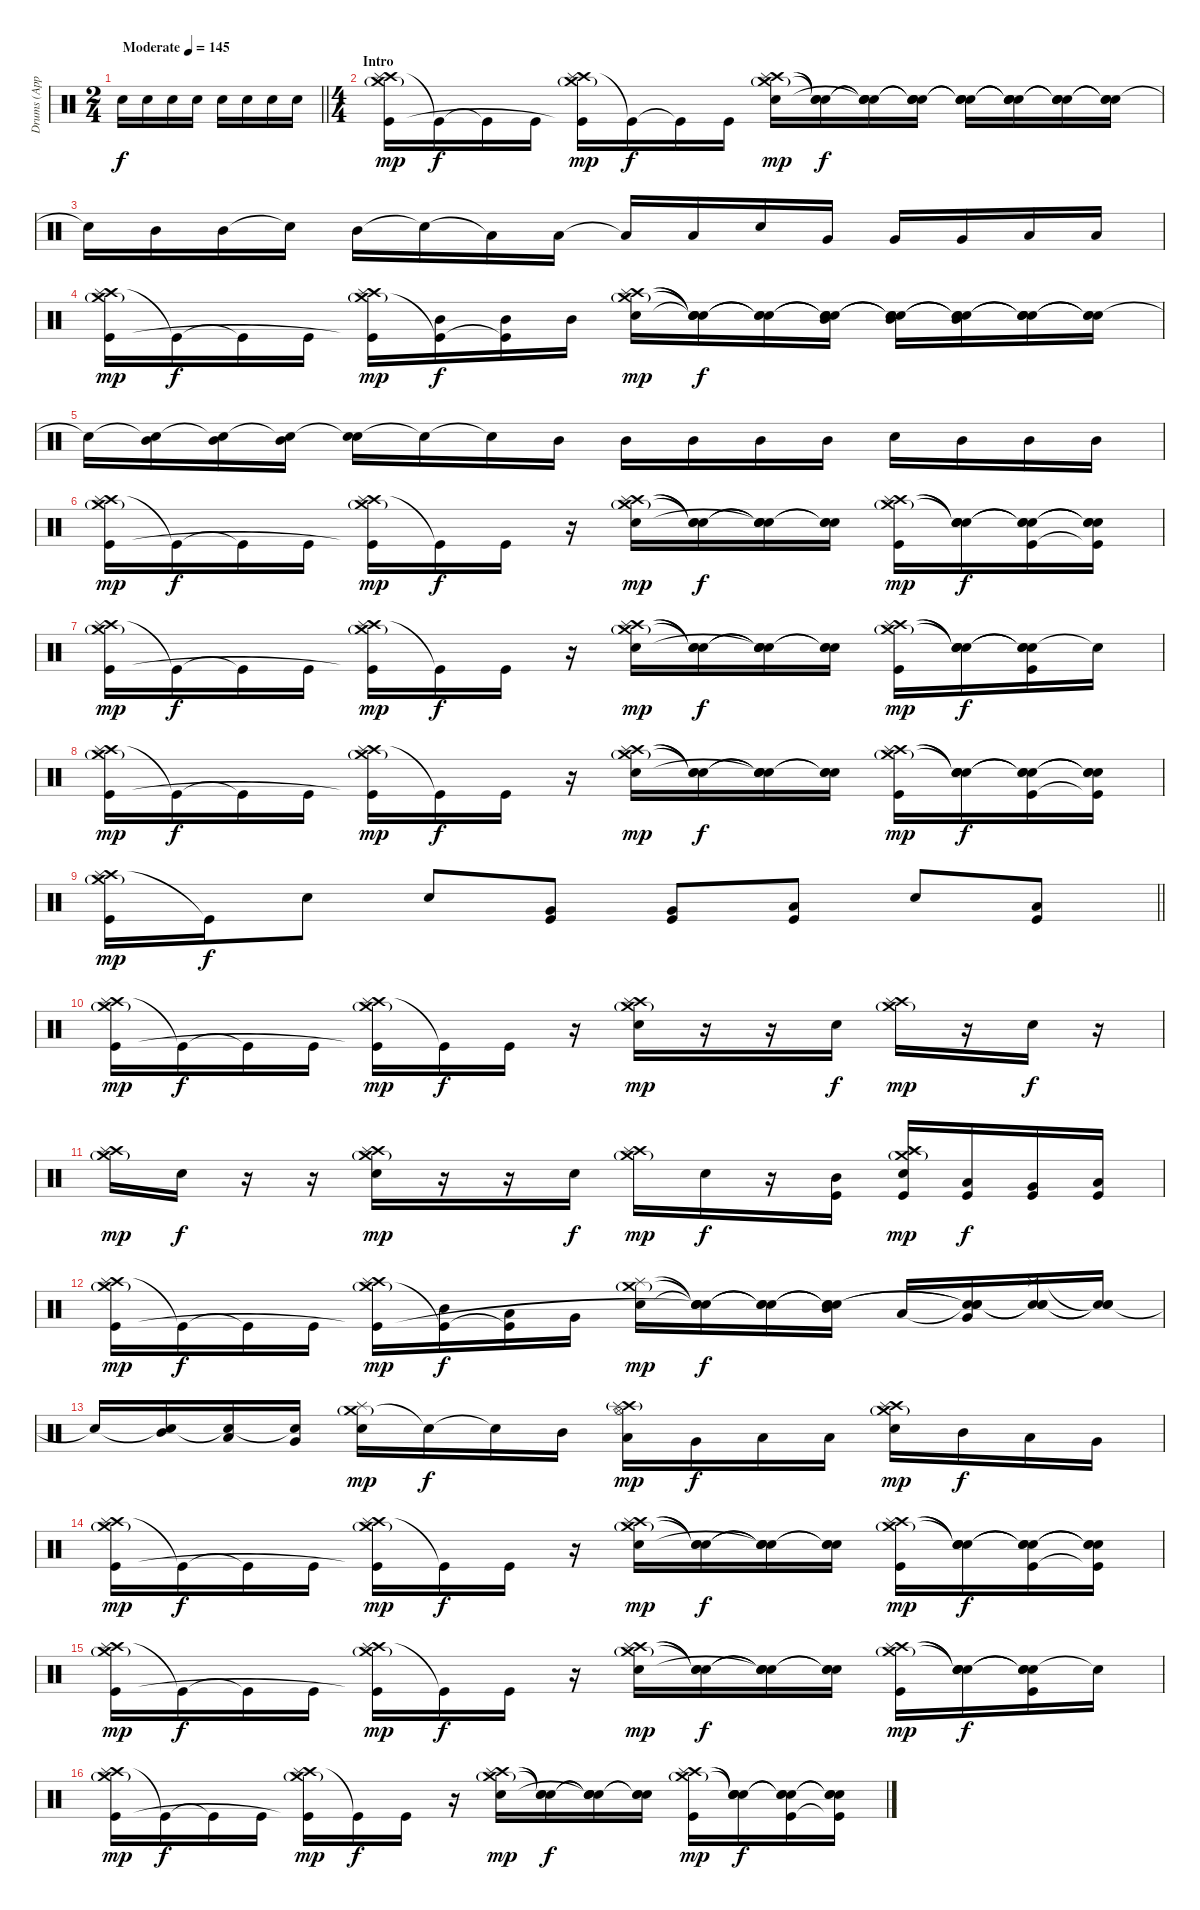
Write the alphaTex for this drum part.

\track ("Drums (Approx.)" "Drums (App") {instrument percussion}
\staff {score}
\articulation defaults
\ts (2 4)
\tempo (145 "Moderate")
\clef neutral
\barLineRight lightlight
\ks c "Electric Snare (hit)".16{dy f} "Electric Snare (hit)".16 "Electric Snare (hit)".16 "Electric Snare (hit)".16 "Electric Snare (hit)".16 "Electric Snare (hit)".16 "Electric Snare (hit)".16 "Electric Snare (hit)".16
|
\ts (4 4)
\section ("" "Intro")
("Crash high (hit)" "Crash medium (hit)"{g} "Splash (hit)" "Kick (hit)").16{dy mp} "Kick (hit)"{t}.16{dy f} "Kick (hit)"{t}.16 "Kick (hit)".16 ("Crash high (hit)" "Crash medium (hit)"{g} "Splash (hit)" "Kick (hit)"{t}).16{dy mp} "Kick (hit)"{t}.16{dy f} "Kick (hit)"{t}.16 "Kick (hit)".16 ("Crash high (hit)" "Crash medium (hit)"{g} "Splash (hit)" "Electric Snare (hit)").16{dy mp} ("Snare (hit)"{t} "Snare (hit)"{t} "Snare (hit)"{t}).16{dy f} ("Snare (hit)"{t} "Snare (hit)"{t} "Snare (hit)"{t} "Electric Snare (hit)"{t}).16 ("Snare (hit)"{t} "Snare (hit)"{t} "Snare (hit)"{t} "Electric Snare (hit)").16 ("Snare (hit)"{t} "Snare (hit)"{t} "Snare (hit)"{t} "Electric Snare (hit)").16 ("Snare (hit)"{t} "Snare (hit)"{t} "Snare (hit)"{t} "Electric Snare (hit)"{t}).16 ("Snare (hit)"{t} "Snare (hit)"{t} "Snare (hit)"{t} "Electric Snare (hit)").16 ("Snare (hit)"{t} "Snare (hit)"{t} "Snare (hit)"{t}).16 |
"Snare (hit)"{t}.16 "Mid Tom (hit)".16 "Mid Tom (hit)".16 "Snare (hit)"{t}.16 "Mid Tom (hit)".16 "Snare (hit)"{t}.16 "Low Tom (hit)"{t}.16 "Low Tom (hit)".16 "Low Tom (hit)"{t}.16 "Low Tom (hit)".16 "Electric Snare (hit)".16 "Very Low Tom (hit)".16 "Very Low Tom (hit)".16 "Very Low Tom (hit)".16 "Low Floor Tom (hit)".16 "Low Floor Tom (hit)".16 |
("Crash high (hit)" "Crash medium (hit)"{g} "Splash (hit)" "Kick (hit)").16{dy mp} "Kick (hit)"{t}.16{dy f} "Kick (hit)"{t}.16 "Kick (hit)".16 ("Crash high (hit)" "Crash medium (hit)"{g} "Splash (hit)" "Kick (hit)"{t}).16{dy mp} ("Mid Tom (hit)" "Kick (hit)"{t}).16{dy f} ("Mid Tom (hit)" "Kick (hit)"{t}).16 "Mid Tom (hit)".16 ("Crash high (hit)" "Crash medium (hit)"{g} "Splash (hit)" "Electric Snare (hit)").16{dy mp} ("Snare (hit)"{t} "Snare (hit)"{t} "Snare (hit)"{t} "Electric Snare (hit)"{t}).16{dy f} ("Snare (hit)"{t} "Snare (hit)"{t} "Snare (hit)"{t}).16 ("Snare (hit)"{t} "Snare (hit)"{t} "Snare (hit)"{t} "Mid Tom (hit)").16 ("Snare (hit)"{t} "Snare (hit)"{t} "Snare (hit)"{t} "Mid Tom (hit)").16 ("Snare (hit)"{t} "Snare (hit)"{t} "Snare (hit)"{t} "Mid Tom (hit)").16 ("Snare (hit)"{t} "Snare (hit)"{t} "Snare (hit)"{t} "Electric Snare (hit)").16 ("Snare (hit)"{t} "Snare (hit)"{t} "Snare (hit)"{t}).16 |
"Snare (hit)"{t}.16 ("Snare (hit)"{t} "Mid Tom (hit)").16 ("Snare (hit)"{t} "Mid Tom (hit)").16 ("Snare (hit)"{t} "Mid Tom (hit)").16 ("Snare (hit)"{t} "Electric Snare (hit)").16 "Snare (hit)"{t}.16 "Snare (hit)"{t}.16 "Mid Tom (hit)".16 "Mid Tom (hit)".16 "Mid Tom (hit)".16 "Mid Tom (hit)".16 "Mid Tom (hit)".16 "Electric Snare (hit)".16 "Mid Tom (hit)".16 "Mid Tom (hit)".16 "Mid Tom (hit)".16 |
("Crash high (hit)" "Crash medium (hit)"{g} "Splash (hit)" "Kick (hit)").16{dy mp} "Kick (hit)"{t}.16{dy f} "Kick (hit)"{t}.16 "Kick (hit)".16 ("Crash high (hit)" "Crash medium (hit)"{g} "Splash (hit)" "Kick (hit)"{t}).16{dy mp} "Kick (hit)"{t}.16{dy f} "Kick (hit)".16 r.16 ("Crash high (hit)" "Crash medium (hit)"{g} "Splash (hit)" "Electric Snare (hit)").16{dy mp} ("Snare (hit)"{t} "Snare (hit)"{t} "Snare (hit)"{t}).16{dy f} ("Snare (hit)"{t} "Snare (hit)"{t} "Snare (hit)"{t} "Electric Snare (hit)"{t}).16 ("Snare (hit)"{t} "Snare (hit)"{t} "Electric Snare (hit)").16 ("Crash high (hit)" "Crash medium (hit)"{g} "Splash (hit)" "Kick (hit)").16{dy mp} ("Snare (hit)"{t} "Snare (hit)"{t} "Snare (hit)"{t} "Electric Snare (hit)").16{dy f} ("Snare (hit)"{t} "Snare (hit)"{t} "Snare (hit)"{t} "Kick (hit)").16 ("Snare (hit)"{t} "Snare (hit)"{t} "Snare (hit)"{t} "Kick (hit)"{t}).16 |
("Crash high (hit)" "Crash medium (hit)"{g} "Splash (hit)" "Kick (hit)").16{dy mp} "Kick (hit)"{t}.16{dy f} "Kick (hit)"{t}.16 "Kick (hit)".16 ("Crash high (hit)" "Crash medium (hit)"{g} "Splash (hit)" "Kick (hit)"{t}).16{dy mp} "Kick (hit)"{t}.16{dy f} "Kick (hit)".16 r.16 ("Crash high (hit)" "Crash medium (hit)"{g} "Splash (hit)" "Electric Snare (hit)").16{dy mp} ("Snare (hit)"{t} "Snare (hit)"{t} "Snare (hit)"{t}).16{dy f} ("Snare (hit)"{t} "Snare (hit)"{t} "Snare (hit)"{t} "Electric Snare (hit)"{t}).16 ("Snare (hit)"{t} "Snare (hit)"{t} "Electric Snare (hit)").16 ("Crash high (hit)" "Crash medium (hit)"{g} "Splash (hit)" "Kick (hit)").16{dy mp} ("Snare (hit)"{t} "Snare (hit)"{t} "Snare (hit)"{t} "Electric Snare (hit)").16{dy f} ("Snare (hit)"{t} "Snare (hit)"{t} "Snare (hit)"{t} "Kick (hit)").16 "Snare (hit)"{t}.16 |
("Crash high (hit)" "Crash medium (hit)"{g} "Splash (hit)" "Kick (hit)").16{dy mp} "Kick (hit)"{t}.16{dy f} "Kick (hit)"{t}.16 "Kick (hit)".16 ("Crash high (hit)" "Crash medium (hit)"{g} "Splash (hit)" "Kick (hit)"{t}).16{dy mp} "Kick (hit)"{t}.16{dy f} "Kick (hit)".16 r.16 ("Crash high (hit)" "Crash medium (hit)"{g} "Splash (hit)" "Electric Snare (hit)").16{dy mp} ("Snare (hit)"{t} "Snare (hit)"{t} "Snare (hit)"{t}).16{dy f} ("Snare (hit)"{t} "Snare (hit)"{t} "Snare (hit)"{t} "Electric Snare (hit)"{t}).16 ("Snare (hit)"{t} "Snare (hit)"{t} "Electric Snare (hit)").16 ("Crash high (hit)" "Crash medium (hit)"{g} "Splash (hit)" "Kick (hit)").16{dy mp} ("Snare (hit)"{t} "Snare (hit)"{t} "Snare (hit)"{t} "Electric Snare (hit)").16{dy f} ("Snare (hit)"{t} "Snare (hit)"{t} "Snare (hit)"{t} "Kick (hit)").16 ("Snare (hit)"{t} "Snare (hit)"{t} "Snare (hit)"{t} "Kick (hit)"{t}).16 |
\barLineRight lightlight
("Crash high (hit)" "Crash medium (hit)"{g} "Splash (hit)" "Kick (hit)").16{dy mp} "Kick (hit)"{t}.16{dy f} "Electric Snare (hit)".8 "Electric Snare (hit)".8 ("Very Low Tom (hit)" "Kick (hit)").8 ("Very Low Tom (hit)" "Kick (hit)").8 ("Low Floor Tom (hit)" "Kick (hit)").8 "Electric Snare (hit)".8 ("Low Floor Tom (hit)" "Kick (hit)").8 |
\section ("" "")
("Crash high (hit)" "Crash medium (hit)"{g} "Splash (hit)" "Kick (hit)").16{dy mp} "Kick (hit)"{t}.16{dy f} "Kick (hit)"{t}.16 "Kick (hit)".16 ("Crash high (hit)" "Crash medium (hit)"{g} "Splash (hit)" "Kick (hit)"{t}).16{dy mp} "Kick (hit)"{t}.16{dy f} "Kick (hit)".16 r.16 ("Crash high (hit)" "Crash medium (hit)"{g} "Splash (hit)" "Electric Snare (hit)").16{dy mp} r.16 r.16 "Electric Snare (hit)".16{dy f} ("Crash high (hit)" "Crash medium (hit)"{g} "Splash (hit)").16{dy mp} r.16 "Electric Snare (hit)".16{dy f} r.16 |
("Crash high (hit)" "Crash medium (hit)"{g} "Splash (hit)").16{dy mp} "Electric Snare (hit)".16{dy f} r.16 r.16 ("Crash high (hit)" "Crash medium (hit)"{g} "Splash (hit)" "Electric Snare (hit)").16{dy mp} r.16 r.16 "Electric Snare (hit)".16{dy f} ("Crash high (hit)" "Crash medium (hit)"{g} "Splash (hit)").16{dy mp} "Electric Snare (hit)".16{dy f} r.16 ("Kick (hit)" "Mid Tom (hit)").16 ("Crash high (hit)" "Crash medium (hit)"{g} "Splash (hit)" "Kick (hit)" "Electric Snare (hit)").16{dy mp} ("Kick (hit)" "Low Tom (hit)").16{dy f} ("Kick (hit)" "Very Low Tom (hit)").16 ("Kick (hit)" "Low Floor Tom (hit)").16 |
("Crash high (hit)" "Crash medium (hit)"{g} "Splash (hit)" "Kick (hit)").16{dy mp} "Kick (hit)"{t}.16{dy f} "Kick (hit)"{t}.16 "Kick (hit)".16 ("Crash high (hit)" "Crash medium (hit)"{g} "Splash (hit)" "Kick (hit)"{t}).16{dy mp} ("Mid Tom (hit)" "Kick (hit)"{t}).16{dy f} ("Low Tom (hit)" "Kick (hit)"{t}).16 "Very Low Tom (hit)".16 ("Crash medium (hit)"{g} "Splash (hit)" "Electric Snare (hit)").16{dy mp} ("Snare (hit)"{t} "Snare (hit)"{t} "Snare (hit)"{t} "Electric Snare (hit)"{t}).16{dy f} ("Snare (hit)"{t} "Snare (hit)"{t} "Snare (hit)"{t}).16 ("Snare (hit)"{t} "Snare (hit)"{t} "Snare (hit)"{t} "Mid Tom (hit)").16 "Low Tom (hit)".16 ("Snare (hit)"{t} "Snare (hit)"{t} "Snare (hit)"{t} "Very Low Tom (hit)").16 ("Snare (hit)"{t} "Snare (hit)"{t} "Splash (hit)" "Electric Snare (hit)").16 ("Snare (hit)"{t} "Snare (hit)"{t} "Snare (hit)"{t}).16 |
"Snare (hit)"{t}.16 ("Snare (hit)"{t} "Mid Tom (hit)").16 ("Snare (hit)"{t} "Low Tom (hit)").16 ("Snare (hit)"{t} "Very Low Tom (hit)").16 ("Crash medium (hit)"{g} "Splash (hit)" "Electric Snare (hit)").16{dy mp} "Snare (hit)"{t}.16{dy f} "Snare (hit)"{t}.16 "Mid Tom (hit)".16 ("Hi-Hat (open)" "Crash high (hit)"{g} "Splash (hit)" "Low Tom (hit)").16{dy mp} "Very Low Tom (hit)".16{dy f} "Low Floor Tom (hit)".16 "Low Floor Tom (hit)".16 ("Crash high (hit)" "Crash medium (hit)"{g} "Splash (hit)" "Electric Snare (hit)").16{dy mp} "Mid Tom (hit)".16{dy f} "Low Tom (hit)".16 "Very Low Tom (hit)".16 |
("Crash high (hit)" "Crash medium (hit)"{g} "Splash (hit)" "Kick (hit)").16{dy mp} "Kick (hit)"{t}.16{dy f} "Kick (hit)"{t}.16 "Kick (hit)".16 ("Crash high (hit)" "Crash medium (hit)"{g} "Splash (hit)" "Kick (hit)"{t}).16{dy mp} "Kick (hit)"{t}.16{dy f} "Kick (hit)".16 r.16 ("Crash high (hit)" "Crash medium (hit)"{g} "Splash (hit)" "Electric Snare (hit)").16{dy mp} ("Snare (hit)"{t} "Snare (hit)"{t} "Snare (hit)"{t}).16{dy f} ("Snare (hit)"{t} "Snare (hit)"{t} "Snare (hit)"{t} "Electric Snare (hit)"{t}).16 ("Snare (hit)"{t} "Snare (hit)"{t} "Electric Snare (hit)").16 ("Crash high (hit)" "Crash medium (hit)"{g} "Splash (hit)" "Kick (hit)").16{dy mp} ("Snare (hit)"{t} "Snare (hit)"{t} "Snare (hit)"{t} "Electric Snare (hit)").16{dy f} ("Snare (hit)"{t} "Snare (hit)"{t} "Snare (hit)"{t} "Kick (hit)").16 ("Snare (hit)"{t} "Snare (hit)"{t} "Snare (hit)"{t} "Kick (hit)"{t}).16 |
("Crash high (hit)" "Crash medium (hit)"{g} "Splash (hit)" "Kick (hit)").16{dy mp} "Kick (hit)"{t}.16{dy f} "Kick (hit)"{t}.16 "Kick (hit)".16 ("Crash high (hit)" "Crash medium (hit)"{g} "Splash (hit)" "Kick (hit)"{t}).16{dy mp} "Kick (hit)"{t}.16{dy f} "Kick (hit)".16 r.16 ("Crash high (hit)" "Crash medium (hit)"{g} "Splash (hit)" "Electric Snare (hit)").16{dy mp} ("Snare (hit)"{t} "Snare (hit)"{t} "Snare (hit)"{t}).16{dy f} ("Snare (hit)"{t} "Snare (hit)"{t} "Snare (hit)"{t} "Electric Snare (hit)"{t}).16 ("Snare (hit)"{t} "Snare (hit)"{t} "Electric Snare (hit)").16 ("Crash high (hit)" "Crash medium (hit)"{g} "Splash (hit)" "Kick (hit)").16{dy mp} ("Snare (hit)"{t} "Snare (hit)"{t} "Snare (hit)"{t} "Electric Snare (hit)").16{dy f} ("Snare (hit)"{t} "Snare (hit)"{t} "Snare (hit)"{t} "Kick (hit)").16 "Snare (hit)"{t}.16 |
("Crash high (hit)" "Crash medium (hit)"{g} "Splash (hit)" "Kick (hit)").16{dy mp} "Kick (hit)"{t}.16{dy f} "Kick (hit)"{t}.16 "Kick (hit)".16 ("Crash high (hit)" "Crash medium (hit)"{g} "Splash (hit)" "Kick (hit)"{t}).16{dy mp} "Kick (hit)"{t}.16{dy f} "Kick (hit)".16 r.16 ("Crash high (hit)" "Crash medium (hit)"{g} "Splash (hit)" "Electric Snare (hit)").16{dy mp} ("Snare (hit)"{t} "Snare (hit)"{t} "Snare (hit)"{t}).16{dy f} ("Snare (hit)"{t} "Snare (hit)"{t} "Snare (hit)"{t} "Electric Snare (hit)"{t}).16 ("Snare (hit)"{t} "Snare (hit)"{t} "Electric Snare (hit)").16 ("Crash high (hit)" "Crash medium (hit)"{g} "Splash (hit)" "Kick (hit)").16{dy mp} ("Snare (hit)"{t} "Snare (hit)"{t} "Snare (hit)"{t} "Electric Snare (hit)").16{dy f} ("Snare (hit)"{t} "Snare (hit)"{t} "Snare (hit)"{t} "Kick (hit)").16 ("Snare (hit)"{t} "Snare (hit)"{t} "Snare (hit)"{t} "Kick (hit)"{t}).16
